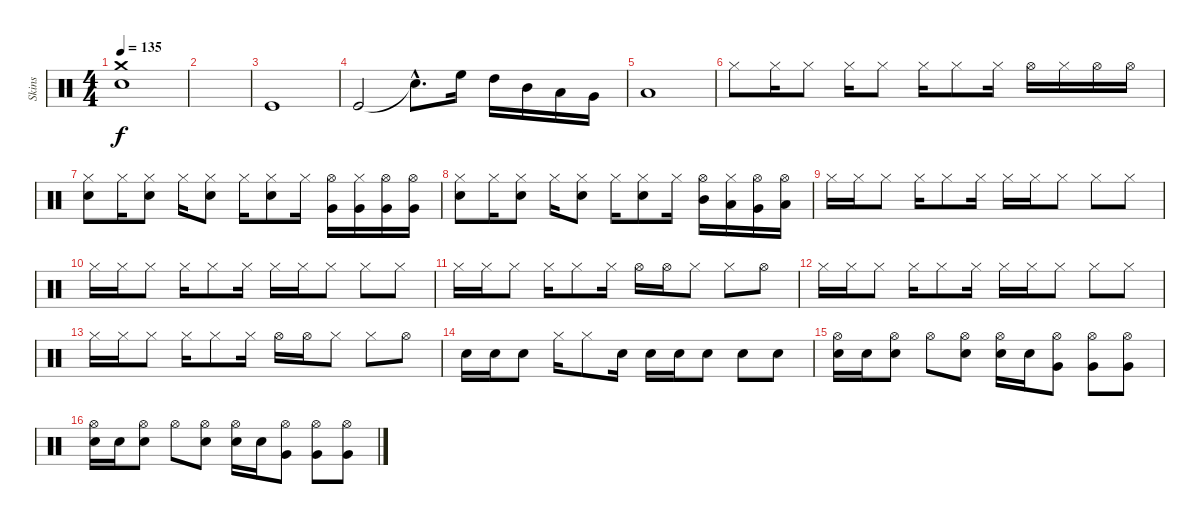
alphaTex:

\track ("Skins" "Skins") {instrument percussion}
\staff {score}
\articulation defaults
\ts (4 4)
\tempo 135
\clef neutral
\ks c
("Crash medium (hit)" "Electric Snare (hit)").1{dy f} |
|
"Kick (hit)".1 |
"Kick (hit)".2 "Snare (hit)"{hac t}.8{d} "High Floor Tom (hit)".16 "High Tom (hit)".16 "Mid Tom (hit)".16 "Low Tom (hit)".16 "Very Low Tom (hit)".16 |
"Low Floor Tom (hit)".1 |
"Hi-Hat (closed)".8 "Hi-Hat (closed)".16 "Hi-Hat (closed)".8 "Hi-Hat (closed)".16 "Hi-Hat (closed)".8 "Hi-Hat (closed)".16 "Hi-Hat (closed)".8 "Hi-Hat (closed)".16 "Hi-Hat (open)".16 "Hi-Hat (closed)".16 "Hi-Hat (open)".16 "Hi-Hat (open)".16 |
("Hi-Hat (closed)" "Electric Snare (hit)").8 "Hi-Hat (closed)".16 ("Hi-Hat (closed)" "Electric Snare (hit)").8 "Hi-Hat (closed)".16 ("Hi-Hat (closed)" "Electric Snare (hit)").8 "Hi-Hat (closed)".16 ("Hi-Hat (closed)" "Electric Snare (hit)").8 "Hi-Hat (closed)".16 ("Hi-Hat (open)" "Very Low Tom (hit)").16 ("Hi-Hat (closed)" "Very Low Tom (hit)").16 ("Hi-Hat (open)" "Very Low Tom (hit)").16 ("Hi-Hat (open)" "Very Low Tom (hit)").16 |
("Hi-Hat (closed)" "Electric Snare (hit)").8 "Hi-Hat (closed)".16 ("Hi-Hat (closed)" "Electric Snare (hit)").8 "Hi-Hat (closed)".16 ("Hi-Hat (closed)" "Electric Snare (hit)").8 "Hi-Hat (closed)".16 ("Hi-Hat (closed)" "Electric Snare (hit)").8 "Hi-Hat (closed)".16 ("Hi-Hat (open)" "Mid Tom (hit)").16 ("Hi-Hat (closed)" "Low Tom (hit)").16 ("Hi-Hat (open)" "Very Low Tom (hit)").16 ("Hi-Hat (open)" "Low Floor Tom (hit)").16 |
"Hi-Hat (closed)".16 "Hi-Hat (closed)".16 "Hi-Hat (closed)".8 "Hi-Hat (closed)".16 "Hi-Hat (closed)".8 "Hi-Hat (closed)".16 "Hi-Hat (closed)".16 "Hi-Hat (closed)".16 "Hi-Hat (closed)".8 "Hi-Hat (closed)".8 "Hi-Hat (closed)".8 |
"Hi-Hat (closed)".16 "Hi-Hat (closed)".16 "Hi-Hat (closed)".8 "Hi-Hat (closed)".16 "Hi-Hat (closed)".8 "Hi-Hat (closed)".16 "Hi-Hat (closed)".16 "Hi-Hat (closed)".16 "Hi-Hat (closed)".8 "Hi-Hat (closed)".8 "Hi-Hat (closed)".8 |
"Hi-Hat (closed)".16 "Hi-Hat (closed)".16 "Hi-Hat (closed)".8 "Hi-Hat (closed)".16 "Hi-Hat (closed)".8 "Hi-Hat (closed)".16 "Hi-Hat (open)".16 "Hi-Hat (open)".16 "Hi-Hat (closed)".8 "Hi-Hat (closed)".8 "Hi-Hat (open)".8 |
"Hi-Hat (closed)".16 "Hi-Hat (closed)".16 "Hi-Hat (closed)".8 "Hi-Hat (closed)".16 "Hi-Hat (closed)".8 "Hi-Hat (closed)".16 "Hi-Hat (closed)".16 "Hi-Hat (closed)".16 "Hi-Hat (closed)".8 "Hi-Hat (closed)".8 "Hi-Hat (closed)".8 |
"Hi-Hat (closed)".16 "Hi-Hat (closed)".16 "Hi-Hat (closed)".8 "Hi-Hat (closed)".16 "Hi-Hat (closed)".8 "Hi-Hat (closed)".16 "Hi-Hat (open)".16 "Hi-Hat (open)".16 "Hi-Hat (closed)".8 "Hi-Hat (closed)".8 "Hi-Hat (open)".8 |
"Electric Snare (hit)".16 "Electric Snare (hit)".16 "Electric Snare (hit)".8 "Hi-Hat (closed)".16 "Hi-Hat (closed)".8 "Electric Snare (hit)".16 "Electric Snare (hit)".16 "Electric Snare (hit)".16 "Electric Snare (hit)".8 "Electric Snare (hit)".8 "Electric Snare (hit)".8 |
("Hi-Hat (open)" "Electric Snare (hit)").16 "Electric Snare (hit)".16 ("Hi-Hat (open)" "Electric Snare (hit)").8 "Hi-Hat (open)".8 ("Hi-Hat (open)" "Electric Snare (hit)").8 ("Hi-Hat (open)" "Electric Snare (hit)").16 "Electric Snare (hit)".16 ("Hi-Hat (open)" "Very Low Tom (hit)").8 ("Hi-Hat (open)" "Very Low Tom (hit)").8 ("Hi-Hat (open)" "Very Low Tom (hit)").8 |
("Hi-Hat (open)" "Electric Snare (hit)").16 "Electric Snare (hit)".16 ("Hi-Hat (open)" "Electric Snare (hit)").8 "Hi-Hat (open)".8 ("Hi-Hat (open)" "Electric Snare (hit)").8 ("Hi-Hat (open)" "Electric Snare (hit)").16 "Electric Snare (hit)".16 ("Hi-Hat (open)" "Very Low Tom (hit)").8 ("Hi-Hat (open)" "Very Low Tom (hit)").8 ("Hi-Hat (open)" "Very Low Tom (hit)").8
